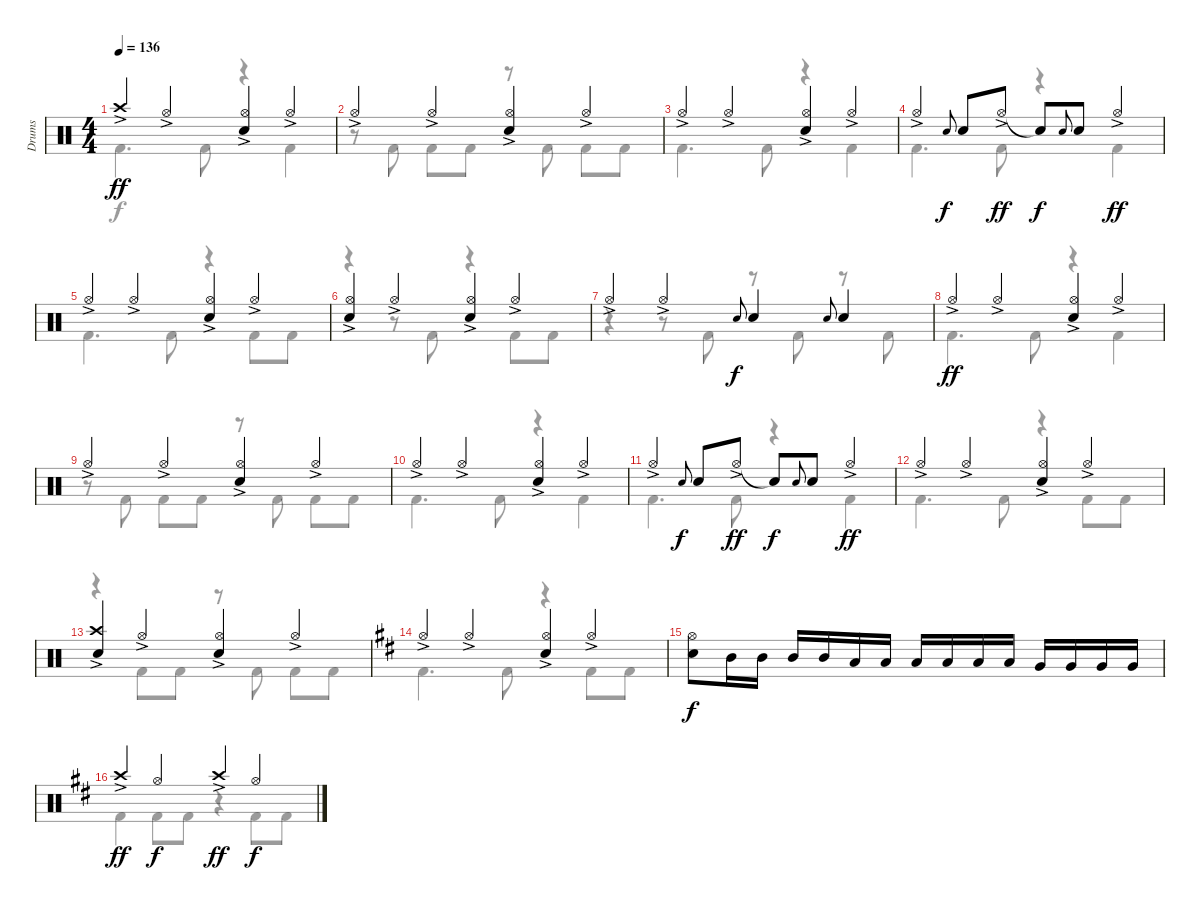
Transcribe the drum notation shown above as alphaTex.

\track ("Drums" "Drums") {instrument percussion}
\staff {score}
\articulation defaults
\voice
\ts (4 4)
\tempo 136
\clef neutral
\ks c "Crash high (hit)"{ac}.4{dy ff} "Hi-Hat (open)"{ac}.4
("Hi-Hat (open)"{ac} "Electric Snare (hit)").4 "Hi-Hat (open)"{ac}.4 |
"Hi-Hat (open)"{ac}.4 "Hi-Hat (open)"{ac}.4 ("Hi-Hat (open)"{ac} "Electric Snare (hit)").4 "Hi-Hat (open)"{ac}.4 |
"Hi-Hat (open)"{ac}.4 "Hi-Hat (open)"{ac}.4 ("Hi-Hat (open)"{ac} "Electric Snare (hit)").4 "Hi-Hat (open)"{ac}.4 |
"Hi-Hat (open)"{ac}.4 "Electric Snare (hit)".8{gr onbeat dy f} "Electric Snare (hit)".8 "Hi-Hat (open)"{ac}.8{dy ff} "Snare (hit)"{t}.8{dy f} "Electric Snare (hit)".8{gr onbeat} "Electric Snare (hit)".8 "Hi-Hat (open)"{ac}.4{dy ff} |
"Hi-Hat (open)"{ac}.4 "Hi-Hat (open)"{ac}.4 ("Hi-Hat (open)"{ac} "Electric Snare (hit)").4 "Hi-Hat (open)"{ac}.4 |
("Hi-Hat (open)"{ac} "Electric Snare (hit)").4 "Hi-Hat (open)"{ac}.4 ("Hi-Hat (open)"{ac} "Electric Snare (hit)").4 "Hi-Hat (open)"{ac}.4 |
"Hi-Hat (open)"{ac}.4 "Hi-Hat (open)"{ac}.4 "Electric Snare (hit)".8{gr onbeat dy f} "Electric Snare (hit)".4 "Electric Snare (hit)".8{gr onbeat} "Electric Snare (hit)".4 |
"Hi-Hat (open)"{ac}.4{dy ff} "Hi-Hat (open)"{ac}.4 ("Hi-Hat (open)"{ac} "Electric Snare (hit)").4 "Hi-Hat (open)"{ac}.4 |
"Hi-Hat (open)"{ac}.4 "Hi-Hat (open)"{ac}.4 ("Hi-Hat (open)"{ac} "Electric Snare (hit)").4 "Hi-Hat (open)"{ac}.4 |
"Hi-Hat (open)"{ac}.4 "Hi-Hat (open)"{ac}.4 ("Hi-Hat (open)"{ac} "Electric Snare (hit)").4 "Hi-Hat (open)"{ac}.4 |
"Hi-Hat (open)"{ac}.4 "Electric Snare (hit)".8{gr onbeat dy f} "Electric Snare (hit)".8 "Hi-Hat (open)"{ac}.8{dy ff} "Snare (hit)"{t}.8{dy f} "Electric Snare (hit)".8{gr onbeat} "Electric Snare (hit)".8 "Hi-Hat (open)"{ac}.4{dy ff} |
"Hi-Hat (open)"{ac}.4 "Hi-Hat (open)"{ac}.4 ("Hi-Hat (open)"{ac} "Electric Snare (hit)").4 "Hi-Hat (open)"{ac}.4 |
("Crash high (hit)"{ac} "Electric Snare (hit)").4 "Hi-Hat (open)"{ac}.4 ("Hi-Hat (open)"{ac} "Electric Snare (hit)").4 "Hi-Hat (open)"{ac}.4 |
\ks d "Hi-Hat (open)"{ac}.4 "Hi-Hat (open)"{ac}.4
("Hi-Hat (open)"{ac} "Electric Snare (hit)").4 "Hi-Hat (open)"{ac}.4 |
("Hi-Hat (open)" "Electric Snare (hit)").8{dy f} "Mid Tom (hit)".16 "Mid Tom (hit)".16 "Mid Tom (hit)".16 "Mid Tom (hit)".16 "Low Tom (hit)".16 "Low Tom (hit)".16 "Low Tom (hit)".16 "Low Tom (hit)".16 "Low Tom (hit)".16 "Low Tom (hit)".16 "Very Low Tom (hit)".16 "Very Low Tom (hit)".16 "Very Low Tom (hit)".16 "Very Low Tom (hit)".16 |
"Crash high (hit)"{ac}.4{dy ff} "Hi-Hat (open)".4{dy f} "Crash high (hit)"{ac}.4{dy ff} "Hi-Hat (open)".4{dy f}
\voice
\clef neutral
\ottava regular
\simile none
\ks c "Kick (hit) 2".4{d dy f} "Kick (hit) 2".8
r.4 "Kick (hit) 2".4 |
r.8 "Kick (hit) 2".8 "Kick (hit) 2".8 "Kick (hit) 2".8 r.8 "Kick (hit) 2".8 "Kick (hit) 2".8 "Kick (hit) 2".8 |
"Kick (hit) 2".4{d} "Kick (hit) 2".8 r.4 "Kick (hit) 2".4 |
"Kick (hit) 2".4{d} "Kick (hit) 2".8 r.4 "Kick (hit) 2".4 |
"Kick (hit) 2".4{d} "Kick (hit) 2".8 r.4 "Kick (hit) 2".8{beam merge} "Kick (hit) 2".8 |
r.4 r.8 "Kick (hit) 2".8 r.4 "Kick (hit) 2".8 "Kick (hit) 2".8 |
r.4 r.8 "Kick (hit) 2".8 r.8 "Kick (hit) 2".8 r.8 "Kick (hit) 2".8 |
"Kick (hit) 2".4{d} "Kick (hit) 2".8 r.4 "Kick (hit) 2".4 |
r.8 "Kick (hit) 2".8 "Kick (hit) 2".8 "Kick (hit) 2".8 r.8 "Kick (hit) 2".8 "Kick (hit) 2".8 "Kick (hit) 2".8 |
"Kick (hit) 2".4{d} "Kick (hit) 2".8 r.4 "Kick (hit) 2".4 |
"Kick (hit) 2".4{d} "Kick (hit) 2".8 r.4 "Kick (hit) 2".4 |
"Kick (hit) 2".4{d} "Kick (hit) 2".8 r.4 "Kick (hit) 2".8 "Kick (hit) 2".8 |
r.4 "Kick (hit) 2".8 "Kick (hit) 2".8 r.8 "Kick (hit) 2".8 "Kick (hit) 2".8 "Kick (hit) 2".8 |
\ks d "Kick (hit) 2".4{d} "Kick (hit) 2".8
r.4 "Kick (hit) 2".8 "Kick (hit) 2".8 |
|
"Kick (hit) 2".4 "Kick (hit) 2".8 "Kick (hit) 2".8 r.4 "Kick (hit) 2".8 "Kick (hit) 2".8
